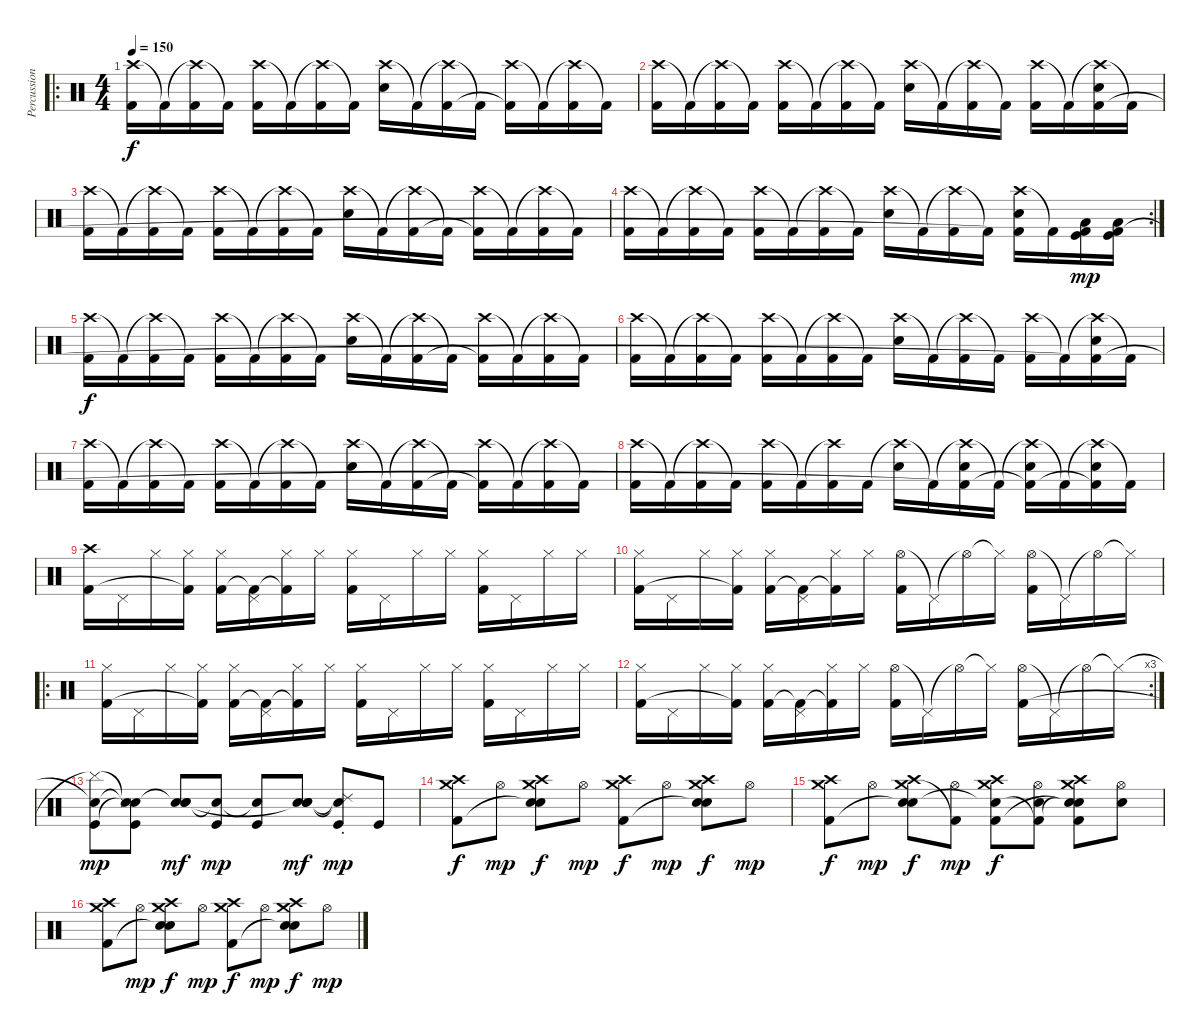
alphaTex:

\track ("Percussion" "Percussion") {instrument percussion}
\staff {score}
\articulation defaults
\ro
\ts (4 4)
\tempo 150
\clef neutral
\ks c
("Crash high (hit)" "Kick (hit) 2").16{dy f} "Kick (hit) 2"{t}.16 ("Crash high (hit)"{t} "Kick (hit) 2").16 "Kick (hit) 2"{t}.16 ("Crash high (hit)" "Kick (hit) 2").16 "Kick (hit) 2"{t}.16 ("Crash high (hit)"{t} "Kick (hit) 2").16 "Kick (hit) 2"{t}.16 ("Crash high (hit)" "Electric Snare (hit)").16 "Kick (hit) 2"{t}.16 ("Crash high (hit)"{t} "Kick (hit) 2").16 "Kick (hit) 2"{t}.16 ("Crash high (hit)" "Kick (hit) 2"{t}).16 "Kick (hit) 2"{t}.16 ("Crash high (hit)"{t} "Kick (hit) 2").16 "Kick (hit) 2"{t}.16 |
("Crash high (hit)" "Kick (hit) 2").16 "Kick (hit) 2"{t}.16 ("Crash high (hit)"{t} "Kick (hit) 2").16 "Kick (hit) 2"{t}.16 ("Crash high (hit)" "Kick (hit) 2").16 "Kick (hit) 2"{t}.16 ("Crash high (hit)"{t} "Kick (hit) 2").16 "Kick (hit) 2"{t}.16 ("Crash high (hit)" "Electric Snare (hit)").16 "Kick (hit) 2"{t}.16 ("Crash high (hit)"{t} "Kick (hit) 2").16 "Kick (hit) 2"{t}.16 ("Crash high (hit)" "Kick (hit) 2").16 "Kick (hit) 2"{t}.16 ("Crash high (hit)"{t} "Electric Snare (hit)" "Kick (hit) 2"{t}).16 "Kick (hit) 2"{t}.16 |
("Crash high (hit)" "Kick (hit) 2").16 "Kick (hit) 2"{t}.16 ("Crash high (hit)"{t} "Kick (hit) 2").16 "Kick (hit) 2"{t}.16 ("Crash high (hit)" "Kick (hit) 2").16 "Kick (hit) 2"{t}.16 ("Crash high (hit)"{t} "Kick (hit) 2").16 "Kick (hit) 2"{t}.16 ("Crash high (hit)" "Electric Snare (hit)").16 "Kick (hit) 2"{t}.16 ("Crash high (hit)"{t} "Kick (hit) 2").16 "Kick (hit) 2"{t}.16 ("Crash high (hit)" "Kick (hit) 2"{t}).16 "Kick (hit) 2"{t}.16 ("Crash high (hit)"{t} "Kick (hit) 2").16 "Kick (hit) 2"{t}.16 |
\rc 2
("Crash high (hit)" "Kick (hit) 2").16 "Kick (hit) 2"{t}.16 ("Crash high (hit)"{t} "Kick (hit) 2").16 "Kick (hit) 2"{t}.16 ("Crash high (hit)" "Kick (hit) 2").16 "Kick (hit) 2"{t}.16 ("Crash high (hit)"{t} "Kick (hit) 2").16 "Kick (hit) 2"{t}.16 ("Crash high (hit)" "Electric Snare (hit)").16 "Kick (hit) 2"{t}.16 ("Crash high (hit)"{t} "Kick (hit) 2").16 "Kick (hit) 2"{t}.16 ("Crash high (hit)" "Electric Snare (hit)" "Kick (hit) 2"{t}).16 "Kick (hit) 2"{t}.16 ("Low Floor Tom (hit)" "Kick (hit)" "Kick (hit) 2").16{bu 60 dy mp} ("Low Floor Tom (hit)" "Kick (hit)" "Kick (hit) 2").16{bu 60} |
("Crash high (hit)" "Kick (hit) 2").16{dy f} "Kick (hit) 2"{t}.16 ("Crash high (hit)"{t} "Kick (hit) 2").16 "Kick (hit) 2"{t}.16 ("Crash high (hit)" "Kick (hit) 2").16 "Kick (hit) 2"{t}.16 ("Crash high (hit)"{t} "Kick (hit) 2").16 "Kick (hit) 2"{t}.16 ("Crash high (hit)" "Electric Snare (hit)").16 "Kick (hit) 2"{t}.16 ("Crash high (hit)"{t} "Kick (hit) 2").16 "Kick (hit) 2"{t}.16 ("Crash high (hit)" "Kick (hit) 2"{t}).16 "Kick (hit) 2"{t}.16 ("Crash high (hit)"{t} "Kick (hit) 2").16 "Kick (hit) 2"{t}.16 |
("Crash high (hit)" "Kick (hit) 2").16 "Kick (hit) 2"{t}.16 ("Crash high (hit)"{t} "Kick (hit) 2").16 "Kick (hit) 2"{t}.16 ("Crash high (hit)" "Kick (hit) 2").16 "Kick (hit) 2"{t}.16 ("Crash high (hit)"{t} "Kick (hit) 2").16 "Kick (hit) 2"{t}.16 ("Crash high (hit)" "Electric Snare (hit)").16 "Kick (hit) 2"{t}.16 ("Crash high (hit)"{t} "Kick (hit) 2").16 "Kick (hit) 2"{t}.16 ("Crash high (hit)" "Kick (hit) 2").16 "Kick (hit) 2"{t}.16 ("Crash high (hit)"{t} "Electric Snare (hit)" "Kick (hit) 2"{t}).16 "Kick (hit) 2"{t}.16 |
("Crash high (hit)" "Kick (hit) 2").16 "Kick (hit) 2"{t}.16 ("Crash high (hit)"{t} "Kick (hit) 2").16 "Kick (hit) 2"{t}.16 ("Crash high (hit)" "Kick (hit) 2").16 "Kick (hit) 2"{t}.16 ("Crash high (hit)"{t} "Kick (hit) 2").16 "Kick (hit) 2"{t}.16 ("Crash high (hit)" "Electric Snare (hit)").16 "Kick (hit) 2"{t}.16 ("Crash high (hit)"{t} "Kick (hit) 2").16 "Kick (hit) 2"{t}.16 ("Crash high (hit)" "Kick (hit) 2"{t}).16 "Kick (hit) 2"{t}.16 ("Crash high (hit)"{t} "Kick (hit) 2").16 "Kick (hit) 2"{t}.16 |
("Crash high (hit)" "Kick (hit) 2").16 "Kick (hit) 2"{t}.16 ("Crash high (hit)"{t} "Kick (hit) 2").16 "Kick (hit) 2"{t}.16 ("Crash high (hit)" "Kick (hit) 2").16 "Kick (hit) 2"{t}.16 ("Crash high (hit)"{t} "Kick (hit) 2").16 "Kick (hit) 2".16 ("Crash high (hit)"{t} "Electric Snare (hit)").16 "Kick (hit) 2"{t}.16 ("Crash high (hit)"{t} "Electric Snare (hit)" "Kick (hit) 2"{t}).16 "Kick (hit) 2"{t}.16 ("Crash high (hit)"{t} "Electric Snare (hit)" "Kick (hit) 2"{t}).16 "Kick (hit) 2"{t}.16 ("Crash high (hit)"{t} "Electric Snare (hit)" "Kick (hit) 2"{t}).16 "Kick (hit) 2"{t}.16 |
("Crash high (hit)" "Kick (hit) 2").16 "Pedal Hi-Hat (hit)".16 "Hi-Hat (closed)".16 ("Hi-Hat (closed)" "Kick (hit) 2"{t}).16 ("Hi-Hat (closed)" "Kick (hit) 2").16 ("Pedal Hi-Hat (hit)" "Kick (hit) 2"{t}).16 ("Hi-Hat (closed)" "Kick (hit) 2"{t}).16 "Hi-Hat (closed)".16 ("Hi-Hat (closed)" "Kick (hit) 2").16 "Pedal Hi-Hat (hit)".16 "Hi-Hat (closed)".16 "Hi-Hat (closed)".16 ("Hi-Hat (closed)" "Kick (hit) 2").16 "Pedal Hi-Hat (hit)".16 "Hi-Hat (closed)".16 "Hi-Hat (closed)".16 |
("Hi-Hat (closed)" "Kick (hit) 2").16 "Pedal Hi-Hat (hit)".16 "Hi-Hat (closed)".16 ("Hi-Hat (closed)" "Kick (hit) 2"{t}).16 ("Hi-Hat (closed)" "Kick (hit) 2").16 ("Pedal Hi-Hat (hit)" "Kick (hit) 2"{t}).16 ("Hi-Hat (closed)" "Kick (hit) 2"{t}).16 "Hi-Hat (closed)".16 ("Hi-Hat (open)" "Kick (hit) 2").16 "Pedal Hi-Hat (hit)"{t}.16 "Hi-Hat (open)"{t}.16 "Hi-Hat (closed)"{t}.16 ("Hi-Hat (open)" "Kick (hit) 2").16 "Pedal Hi-Hat (hit)"{t}.16 "Hi-Hat (open)"{t}.16 "Hi-Hat (closed)"{t}.16 |
\ro
("Hi-Hat (closed)" "Kick (hit) 2").16 "Pedal Hi-Hat (hit)".16 "Hi-Hat (closed)".16 ("Hi-Hat (closed)" "Kick (hit) 2"{t}).16 ("Hi-Hat (closed)" "Kick (hit) 2").16 ("Pedal Hi-Hat (hit)" "Kick (hit) 2"{t}).16 ("Hi-Hat (closed)" "Kick (hit) 2"{t}).16 "Hi-Hat (closed)".16 ("Hi-Hat (closed)" "Kick (hit) 2").16 "Pedal Hi-Hat (hit)".16 "Hi-Hat (closed)".16 "Hi-Hat (closed)".16 ("Hi-Hat (closed)" "Kick (hit) 2").16 "Pedal Hi-Hat (hit)".16 "Hi-Hat (closed)".16 "Hi-Hat (closed)".16 |
\rc 3
("Hi-Hat (closed)" "Kick (hit) 2").16 "Pedal Hi-Hat (hit)".16 "Hi-Hat (closed)".16 ("Hi-Hat (closed)" "Kick (hit) 2"{t}).16 ("Hi-Hat (closed)" "Kick (hit) 2").16 ("Pedal Hi-Hat (hit)" "Kick (hit) 2"{t}).16 ("Hi-Hat (closed)" "Kick (hit) 2"{t}).16 "Hi-Hat (closed)".16 ("Hi-Hat (open)" "Kick (hit) 2").16 "Pedal Hi-Hat (hit)"{t}.16 "Hi-Hat (open)"{t}.16 "Hi-Hat (closed)"{t}.16 ("Hi-Hat (open)" "Kick (hit) 2").16 "Pedal Hi-Hat (hit)"{t}.16 "Hi-Hat (open)"{t}.16 "Hi-Hat (closed)"{t}.16 |
("Metronome (bell)"{t} "Cymbal (hit)"{t} "Kick (hit)").8{dy mp} ("Metronome (bell)"{t} "Snare (side stick) 3"{t} "Electric Snare (hit)"{t} "Kick (hit)").8 ("Metronome (bell)"{t} "Hand Clap (hit)" "Snare (hit) 2").8{dy mf} ("Hand Clap (hit)"{t} "Kick (hit)").8{dy mp} ("Metronome (bell)"{t} "Kick (hit)").8 ("Hand Clap (hit)" "Snare (hit) 2" "Snare (hit)"{t}).8{dy mf} ("Metronome (bell)"{t} "Ride (choke) 2"{t} "Kick (hit)").8{dy mp} "Kick (hit)".8 |
("Crash high (hit)" "Crash medium (hit)" "Kick (hit) 2").8{dy f} "Hi-Hat (open)".8{dy mp} ("Crash high (hit)" "Crash medium (hit)" "Snare (hit) 2"{t} "Electric Snare (hit)").8{dy f} "Hi-Hat (open)".8{dy mp} ("Crash high (hit)" "Crash medium (hit)" "Kick (hit) 2").8{dy f} "Hi-Hat (open)".8{dy mp} ("Crash high (hit)" "Crash medium (hit)" "Snare (hit) 2"{t} "Electric Snare (hit)").8{dy f} "Hi-Hat (open)".8{dy mp} |
("Crash high (hit)" "Crash medium (hit)" "Kick (hit) 2").8{dy f} "Hi-Hat (open)".8{dy mp} ("Crash high (hit)" "Crash medium (hit)" "Snare (hit) 2"{t} "Electric Snare (hit)").8{dy f} ("Hi-Hat (open)" "Kick (hit) 2"{t}).8{dy mp} ("Crash high (hit)" "Crash medium (hit)" "Electric Snare (hit)"{t} "Kick (hit) 2").8{dy f} ("Hi-Hat (open)" "Electric Snare (hit)" "Kick (hit) 2"{t}).8 ("Crash high (hit)" "Crash medium (hit)" "Snare (hit) 2"{t} "Electric Snare (hit)"{t} "Kick (hit) 2").8 ("Hi-Hat (open)" "Electric Snare (hit)").8 |
("Crash high (hit)" "Crash medium (hit)" "Kick (hit) 2").8 "Hi-Hat (open)".8{dy mp} ("Crash high (hit)" "Crash medium (hit)" "Snare (hit) 2"{t} "Electric Snare (hit)").8{dy f} "Hi-Hat (open)".8{dy mp} ("Crash high (hit)" "Crash medium (hit)" "Kick (hit) 2").8{dy f} "Hi-Hat (open)".8{dy mp} ("Crash high (hit)" "Crash medium (hit)" "Snare (hit) 2"{t} "Electric Snare (hit)").8{dy f} "Hi-Hat (open)".8{dy mp}
